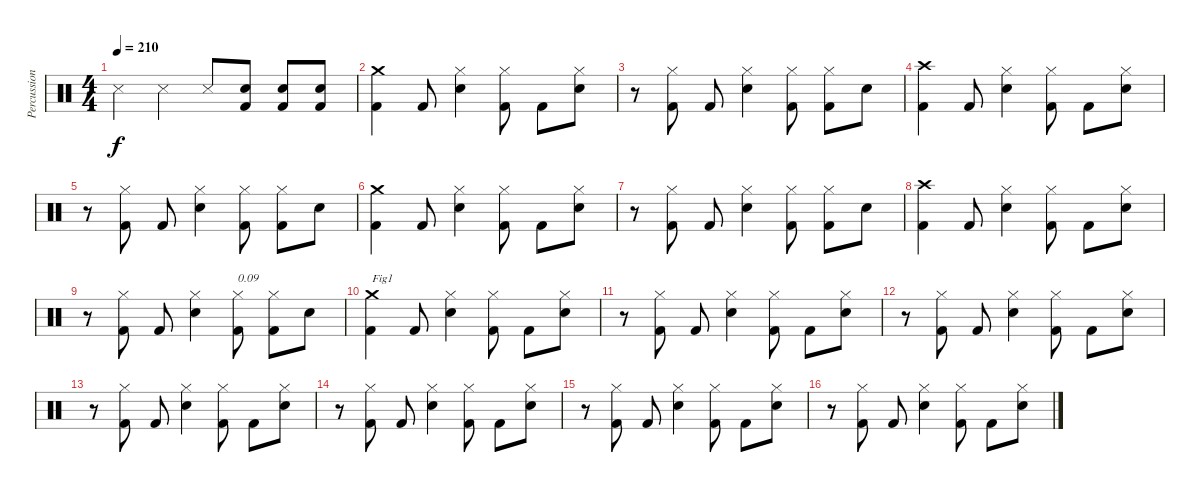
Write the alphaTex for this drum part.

\track ("Percussions" "Percussion") {instrument percussion}
\staff {score}
\articulation defaults
\ts (4 4)
\tempo 210
\clef neutral
\ks c "Metronome (hit)".4{dy f} "Metronome (hit)".4 "Metronome (hit)".8
("Kick (hit) 2" "Electric Snare (hit)").8 ("Kick (hit) 2" "Electric Snare (hit)").8 ("Kick (hit) 2" "Electric Snare (hit)").8 |
("Kick (hit) 2" "Crash medium (hit)").4 "Kick (hit) 2".8 ("Electric Snare (hit)" "Hi-Hat (closed)").4 ("Kick (hit) 2" "Hi-Hat (closed)").8 "Kick (hit) 2".8 ("Electric Snare (hit)" "Hi-Hat (closed)").8 |
r.8 ("Kick (hit) 2" "Hi-Hat (closed)").8 "Kick (hit) 2".8 ("Electric Snare (hit)" "Hi-Hat (closed)").4 ("Kick (hit) 2" "Hi-Hat (closed)").8 ("Kick (hit) 2" "Hi-Hat (closed)").8 "Electric Snare (hit)".8 |
("Kick (hit) 2" "Crash high (hit)").4 "Kick (hit) 2".8 ("Electric Snare (hit)" "Hi-Hat (closed)").4 ("Kick (hit) 2" "Hi-Hat (closed)").8 "Kick (hit) 2".8 ("Electric Snare (hit)" "Hi-Hat (closed)").8 |
r.8 ("Kick (hit) 2" "Hi-Hat (closed)").8 "Kick (hit) 2".8 ("Electric Snare (hit)" "Hi-Hat (closed)").4 ("Kick (hit) 2" "Hi-Hat (closed)").8 ("Kick (hit) 2" "Hi-Hat (closed)").8 "Electric Snare (hit)".8 |
("Kick (hit) 2" "Crash medium (hit)").4 "Kick (hit) 2".8 ("Electric Snare (hit)" "Hi-Hat (closed)").4 ("Kick (hit) 2" "Hi-Hat (closed)").8 "Kick (hit) 2".8 ("Electric Snare (hit)" "Hi-Hat (closed)").8 |
r.8 ("Kick (hit) 2" "Hi-Hat (closed)").8 "Kick (hit) 2".8 ("Electric Snare (hit)" "Hi-Hat (closed)").4 ("Kick (hit) 2" "Hi-Hat (closed)").8 ("Kick (hit) 2" "Hi-Hat (closed)").8 "Electric Snare (hit)".8 |
("Kick (hit) 2" "Crash high (hit)").4 "Kick (hit) 2".8 ("Electric Snare (hit)" "Hi-Hat (closed)").4 ("Kick (hit) 2" "Hi-Hat (closed)").8 "Kick (hit) 2".8 ("Electric Snare (hit)" "Hi-Hat (closed)").8 |
r.8 ("Kick (hit) 2" "Hi-Hat (closed)").8 "Kick (hit) 2".8 ("Electric Snare (hit)" "Hi-Hat (closed)").4 ("Kick (hit) 2" "Hi-Hat (closed)").8{txt "0.09"} ("Kick (hit) 2" "Hi-Hat (closed)").8 "Electric Snare (hit)".8 |
("Kick (hit) 2" "Crash medium (hit)").4{txt "Fig1"} "Kick (hit) 2".8 ("Electric Snare (hit)" "Hi-Hat (closed)").4 ("Kick (hit) 2" "Hi-Hat (closed)").8 "Kick (hit) 2".8 ("Electric Snare (hit)" "Hi-Hat (closed)").8 |
r.8 ("Kick (hit) 2" "Hi-Hat (closed)").8 "Kick (hit) 2".8 ("Electric Snare (hit)" "Hi-Hat (closed)").4 ("Kick (hit) 2" "Hi-Hat (closed)").8 "Kick (hit) 2".8 ("Electric Snare (hit)" "Hi-Hat (closed)").8 |
r.8 ("Kick (hit) 2" "Hi-Hat (closed)").8 "Kick (hit) 2".8 ("Electric Snare (hit)" "Hi-Hat (closed)").4 ("Kick (hit) 2" "Hi-Hat (closed)").8 "Kick (hit) 2".8 ("Electric Snare (hit)" "Hi-Hat (closed)").8 |
r.8 ("Kick (hit) 2" "Hi-Hat (closed)").8 "Kick (hit) 2".8 ("Electric Snare (hit)" "Hi-Hat (closed)").4 ("Kick (hit) 2" "Hi-Hat (closed)").8 "Kick (hit) 2".8 ("Electric Snare (hit)" "Hi-Hat (closed)").8 |
r.8 ("Kick (hit) 2" "Hi-Hat (closed)").8 "Kick (hit) 2".8 ("Electric Snare (hit)" "Hi-Hat (closed)").4 ("Kick (hit) 2" "Hi-Hat (closed)").8 "Kick (hit) 2".8 ("Electric Snare (hit)" "Hi-Hat (closed)").8 |
r.8 ("Kick (hit) 2" "Hi-Hat (closed)").8 "Kick (hit) 2".8 ("Electric Snare (hit)" "Hi-Hat (closed)").4 ("Kick (hit) 2" "Hi-Hat (closed)").8 "Kick (hit) 2".8 ("Electric Snare (hit)" "Hi-Hat (closed)").8 |
r.8 ("Kick (hit) 2" "Hi-Hat (closed)").8 "Kick (hit) 2".8 ("Electric Snare (hit)" "Hi-Hat (closed)").4 ("Kick (hit) 2" "Hi-Hat (closed)").8 "Kick (hit) 2".8 ("Electric Snare (hit)" "Hi-Hat (closed)").8
